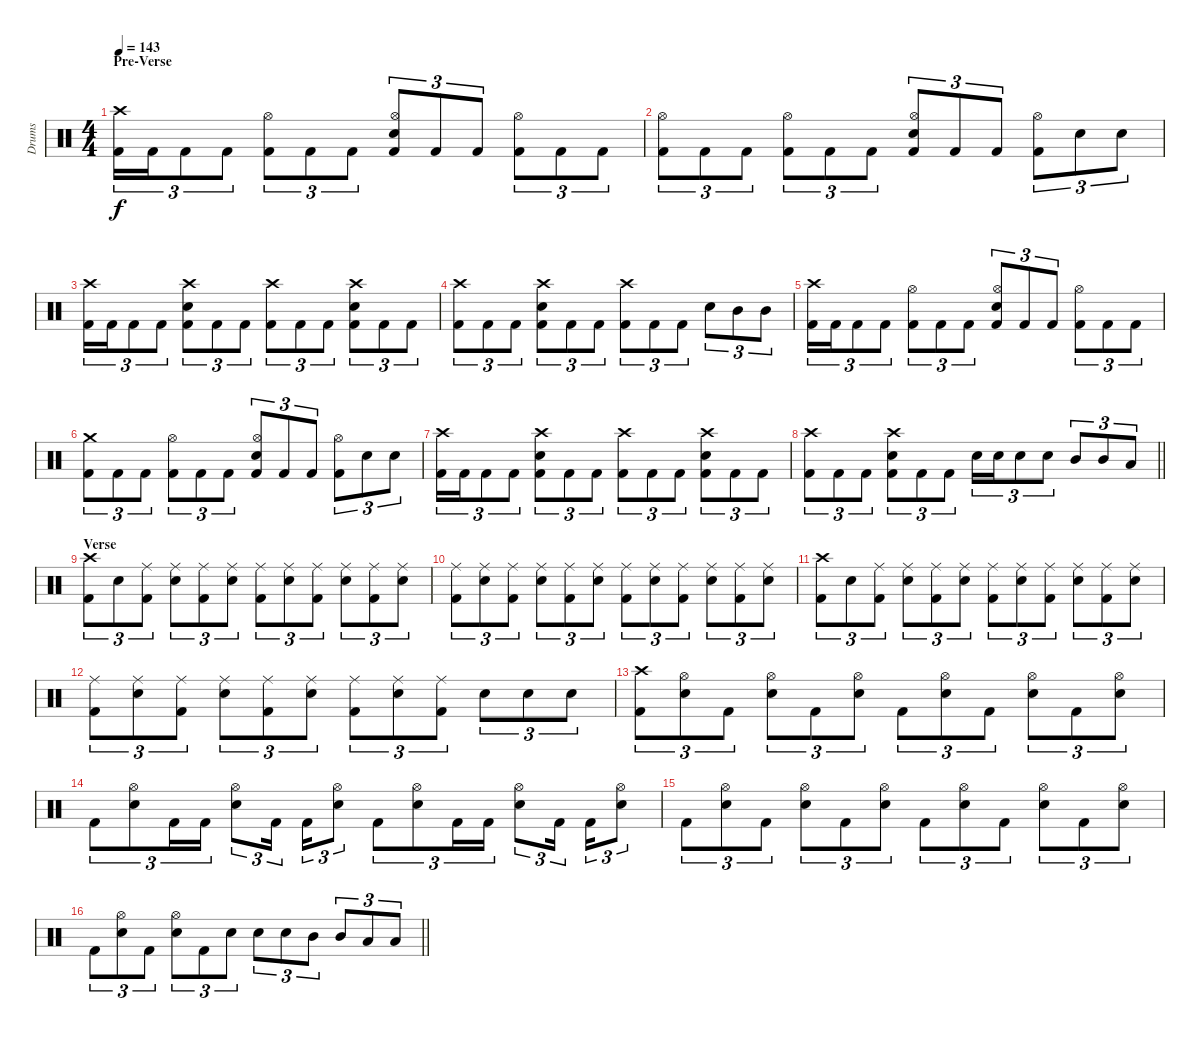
\track ("Drums" "Drums") {instrument percussion}
\staff {score}
\articulation defaults
\ts (4 4)
\section ("" "Pre-Verse")
\tempo 143
\clef neutral
\ks c
("Crash high (hit)" "Kick (hit) 2").16{tu (3 2) dy f} "Kick (hit) 2".16{tu (3 2)} "Kick (hit) 2".8{tu (3 2)} "Kick (hit) 2".8{tu (3 2)} ("Hi-Hat (open)" "Kick (hit) 2").8{tu (3 2)} "Kick (hit) 2".8{tu (3 2)} "Kick (hit) 2".8{tu (3 2)} ("Hi-Hat (open)" "Snare (hit) 2" "Kick (hit) 2").8{tu (3 2)} "Kick (hit) 2".8{tu (3 2)} "Kick (hit) 2".8{tu (3 2)} ("Hi-Hat (open)" "Kick (hit) 2").8{tu (3 2)} "Kick (hit) 2".8{tu (3 2)} "Kick (hit) 2".8{tu (3 2)} |
("Hi-Hat (open)" "Kick (hit) 2").8{tu (3 2)} "Kick (hit) 2".8{tu (3 2)} "Kick (hit) 2".8{tu (3 2)} ("Hi-Hat (open)" "Kick (hit) 2").8{tu (3 2)} "Kick (hit) 2".8{tu (3 2)} "Kick (hit) 2".8{tu (3 2)} ("Hi-Hat (open)" "Snare (hit) 2" "Kick (hit) 2").8{tu (3 2)} "Kick (hit) 2".8{tu (3 2)} "Kick (hit) 2".8{tu (3 2)} ("Hi-Hat (open)" "Kick (hit) 2").8{tu (3 2)} "Snare (hit) 2".8{tu (3 2)} "Snare (hit) 2".8{tu (3 2)} |
("Crash high (hit)" "Kick (hit) 2").16{tu (3 2)} "Kick (hit) 2".16{tu (3 2)} "Kick (hit) 2".8{tu (3 2)} "Kick (hit) 2".8{tu (3 2)} ("Crash high (hit)" "Snare (hit) 2" "Kick (hit) 2").8{tu (3 2)} "Kick (hit) 2".8{tu (3 2)} "Kick (hit) 2".8{tu (3 2)} ("Crash high (hit)" "Kick (hit) 2").8{tu (3 2)} "Kick (hit) 2".8{tu (3 2)} "Kick (hit) 2".8{tu (3 2)} ("Crash high (hit)" "Snare (hit) 2" "Kick (hit) 2").8{tu (3 2)} "Kick (hit) 2".8{tu (3 2)} "Kick (hit) 2".8{tu (3 2)} |
("Crash high (hit)" "Kick (hit) 2").8{tu (3 2)} "Kick (hit) 2".8{tu (3 2)} "Kick (hit) 2".8{tu (3 2)} ("Crash high (hit)" "Snare (hit) 2" "Kick (hit) 2").8{tu (3 2)} "Kick (hit) 2".8{tu (3 2)} "Kick (hit) 2".8{tu (3 2)} ("Crash high (hit)" "Kick (hit) 2").8{tu (3 2)} "Kick (hit) 2".8{tu (3 2)} "Kick (hit) 2".8{tu (3 2)} "Snare (hit) 2".8{tu (3 2)} "Mid Tom (hit)".8{tu (3 2)} "Mid Tom (hit)".8{tu (3 2)} |
("Crash high (hit)" "Kick (hit) 2").16{tu (3 2)} "Kick (hit) 2".16{tu (3 2)} "Kick (hit) 2".8{tu (3 2)} "Kick (hit) 2".8{tu (3 2)} ("Hi-Hat (open)" "Kick (hit) 2").8{tu (3 2)} "Kick (hit) 2".8{tu (3 2)} "Kick (hit) 2".8{tu (3 2)} ("Hi-Hat (open)" "Snare (hit) 2" "Kick (hit) 2").8{tu (3 2)} "Kick (hit) 2".8{tu (3 2)} "Kick (hit) 2".8{tu (3 2)} ("Hi-Hat (open)" "Kick (hit) 2").8{tu (3 2)} "Kick (hit) 2".8{tu (3 2)} "Kick (hit) 2".8{tu (3 2)} |
("Crash medium (hit)" "Kick (hit) 2").8{tu (3 2)} "Kick (hit) 2".8{tu (3 2)} "Kick (hit) 2".8{tu (3 2)} ("Hi-Hat (open)" "Kick (hit) 2").8{tu (3 2)} "Kick (hit) 2".8{tu (3 2)} "Kick (hit) 2".8{tu (3 2)} ("Hi-Hat (open)" "Snare (hit) 2" "Kick (hit) 2").8{tu (3 2)} "Kick (hit) 2".8{tu (3 2)} "Kick (hit) 2".8{tu (3 2)} ("Hi-Hat (open)" "Kick (hit) 2").8{tu (3 2)} "Snare (hit) 2".8{tu (3 2)} "Snare (hit) 2".8{tu (3 2)} |
("Crash high (hit)" "Kick (hit) 2").16{tu (3 2)} "Kick (hit) 2".16{tu (3 2)} "Kick (hit) 2".8{tu (3 2)} "Kick (hit) 2".8{tu (3 2)} ("Crash high (hit)" "Snare (hit) 2" "Kick (hit) 2").8{tu (3 2)} "Kick (hit) 2".8{tu (3 2)} "Kick (hit) 2".8{tu (3 2)} ("Crash high (hit)" "Kick (hit) 2").8{tu (3 2)} "Kick (hit) 2".8{tu (3 2)} "Kick (hit) 2".8{tu (3 2)} ("Crash high (hit)" "Snare (hit) 2" "Kick (hit) 2").8{tu (3 2)} "Kick (hit) 2".8{tu (3 2)} "Kick (hit) 2".8{tu (3 2)} |
\barLineRight lightlight
("Crash high (hit)" "Kick (hit) 2").8{tu (3 2)} "Kick (hit) 2".8{tu (3 2)} "Kick (hit) 2".8{tu (3 2)} ("Crash high (hit)" "Snare (hit) 2" "Kick (hit) 2").8{tu (3 2)} "Kick (hit) 2".8{tu (3 2)} "Kick (hit) 2".8{tu (3 2)} "Snare (hit) 2".16{tu (3 2)} "Snare (hit) 2".16{tu (3 2)} "Snare (hit) 2".8{tu (3 2)} "Snare (hit) 2".8{tu (3 2)} "Mid Tom (hit)".8{tu (3 2)} "Mid Tom (hit)".8{tu (3 2)} "Low Tom (hit)".8{tu (3 2)} |
\section ("" "Verse")
("Crash high (hit)" "Kick (hit) 2").8{tu (3 2)} "Snare (hit) 2".8{tu (3 2)} ("Ride (middle)" "Kick (hit) 2").8{tu (3 2)} ("Ride (middle)" "Snare (hit) 2").8{tu (3 2)} ("Ride (middle)" "Kick (hit) 2").8{tu (3 2)} ("Ride (middle)" "Snare (hit) 2").8{tu (3 2)} ("Ride (middle)" "Kick (hit) 2").8{tu (3 2)} ("Ride (middle)" "Snare (hit) 2").8{tu (3 2)} ("Ride (middle)" "Kick (hit) 2").8{tu (3 2)} ("Ride (middle)" "Snare (hit) 2").8{tu (3 2)} ("Ride (middle)" "Kick (hit) 2").8{tu (3 2)} ("Ride (middle)" "Snare (hit) 2").8{tu (3 2)} |
("Ride (middle)" "Kick (hit) 2").8{tu (3 2)} ("Ride (middle)" "Snare (hit) 2").8{tu (3 2)} ("Ride (middle)" "Kick (hit) 2").8{tu (3 2)} ("Ride (middle)" "Snare (hit) 2").8{tu (3 2)} ("Ride (middle)" "Kick (hit) 2").8{tu (3 2)} ("Ride (middle)" "Snare (hit) 2").8{tu (3 2)} ("Ride (middle)" "Kick (hit) 2").8{tu (3 2)} ("Ride (middle)" "Snare (hit) 2").8{tu (3 2)} ("Ride (middle)" "Kick (hit) 2").8{tu (3 2)} ("Ride (middle)" "Snare (hit) 2").8{tu (3 2)} ("Ride (middle)" "Kick (hit) 2").8{tu (3 2)} ("Ride (middle)" "Snare (hit) 2").8{tu (3 2)} |
("Crash high (hit)" "Kick (hit) 2").8{tu (3 2)} "Snare (hit) 2".8{tu (3 2)} ("Ride (middle)" "Kick (hit) 2").8{tu (3 2)} ("Ride (middle)" "Snare (hit) 2").8{tu (3 2)} ("Ride (middle)" "Kick (hit) 2").8{tu (3 2)} ("Ride (middle)" "Snare (hit) 2").8{tu (3 2)} ("Ride (middle)" "Kick (hit) 2").8{tu (3 2)} ("Ride (middle)" "Snare (hit) 2").8{tu (3 2)} ("Ride (middle)" "Kick (hit) 2").8{tu (3 2)} ("Ride (middle)" "Snare (hit) 2").8{tu (3 2)} ("Ride (middle)" "Kick (hit) 2").8{tu (3 2)} ("Ride (middle)" "Snare (hit) 2").8{tu (3 2)} |
("Ride (middle)" "Kick (hit) 2").8{tu (3 2)} ("Ride (middle)" "Snare (hit) 2").8{tu (3 2)} ("Ride (middle)" "Kick (hit) 2").8{tu (3 2)} ("Ride (middle)" "Snare (hit) 2").8{tu (3 2)} ("Ride (middle)" "Kick (hit) 2").8{tu (3 2)} ("Ride (middle)" "Snare (hit) 2").8{tu (3 2)} ("Ride (middle)" "Kick (hit) 2").8{tu (3 2)} ("Ride (middle)" "Snare (hit) 2").8{tu (3 2)} ("Ride (middle)" "Kick (hit) 2").8{tu (3 2)} "Snare (hit) 2".8{tu (3 2)} "Snare (hit) 2".8{tu (3 2)} "Snare (hit) 2".8{tu (3 2)} |
("Crash high (hit)" "Kick (hit) 2").8{tu (3 2)} ("Hi-Hat (open)" "Snare (hit) 2").8{tu (3 2)} "Kick (hit) 2".8{tu (3 2)} ("Hi-Hat (open)" "Snare (hit) 2").8{tu (3 2)} "Kick (hit) 2".8{tu (3 2)} ("Hi-Hat (open)" "Snare (hit) 2").8{tu (3 2)} "Kick (hit) 2".8{tu (3 2)} ("Hi-Hat (open)" "Snare (hit) 2").8{tu (3 2)} "Kick (hit) 2".8{tu (3 2)} ("Hi-Hat (open)" "Snare (hit) 2").8{tu (3 2)} "Kick (hit) 2".8{tu (3 2)} ("Hi-Hat (open)" "Snare (hit) 2").8{tu (3 2)} |
"Kick (hit) 2".8{tu (3 2)} ("Hi-Hat (open)" "Snare (hit) 2").8{tu (3 2)} "Kick (hit) 2".16{tu (3 2)} "Kick (hit) 2".16{tu (3 2)} ("Hi-Hat (open)" "Snare (hit) 2").8{tu (3 2)} "Kick (hit) 2".16{tu (3 2) beam splitsecondary} "Kick (hit) 2".16{tu (3 2)} ("Hi-Hat (open)" "Snare (hit) 2").8{tu (3 2)} "Kick (hit) 2".8{tu (3 2)} ("Hi-Hat (open)" "Snare (hit) 2").8{tu (3 2)} "Kick (hit) 2".16{tu (3 2)} "Kick (hit) 2".16{tu (3 2)} ("Hi-Hat (open)" "Snare (hit) 2").8{tu (3 2)} "Kick (hit) 2".16{tu (3 2) beam splitsecondary} "Kick (hit) 2".16{tu (3 2)} ("Hi-Hat (open)" "Snare (hit) 2").8{tu (3 2)} |
"Kick (hit) 2".8{tu (3 2)} ("Hi-Hat (open)" "Snare (hit) 2").8{tu (3 2)} "Kick (hit) 2".8{tu (3 2)} ("Hi-Hat (open)" "Snare (hit) 2").8{tu (3 2)} "Kick (hit) 2".8{tu (3 2)} ("Hi-Hat (open)" "Snare (hit) 2").8{tu (3 2)} "Kick (hit) 2".8{tu (3 2)} ("Hi-Hat (open)" "Snare (hit) 2").8{tu (3 2)} "Kick (hit) 2".8{tu (3 2)} ("Hi-Hat (open)" "Snare (hit) 2").8{tu (3 2)} "Kick (hit) 2".8{tu (3 2)} ("Hi-Hat (open)" "Snare (hit) 2").8{tu (3 2)} |
\barLineRight lightlight "Kick (hit) 2".8{tu (3 2)}
("Hi-Hat (open)" "Snare (hit) 2").8{tu (3 2)} "Kick (hit) 2".8{tu (3 2)} ("Hi-Hat (open)" "Snare (hit) 2").8{tu (3 2)} "Kick (hit) 2".8{tu (3 2)} "Snare (hit) 2".8{tu (3 2)} "Snare (hit) 2".8{tu (3 2)} "Snare (hit) 2".8{tu (3 2)} "Mid Tom (hit)".8{tu (3 2)} "Mid Tom (hit)".8{tu (3 2)} "Low Tom (hit)".8{tu (3 2)} "Low Tom (hit)".8{tu (3 2)}
